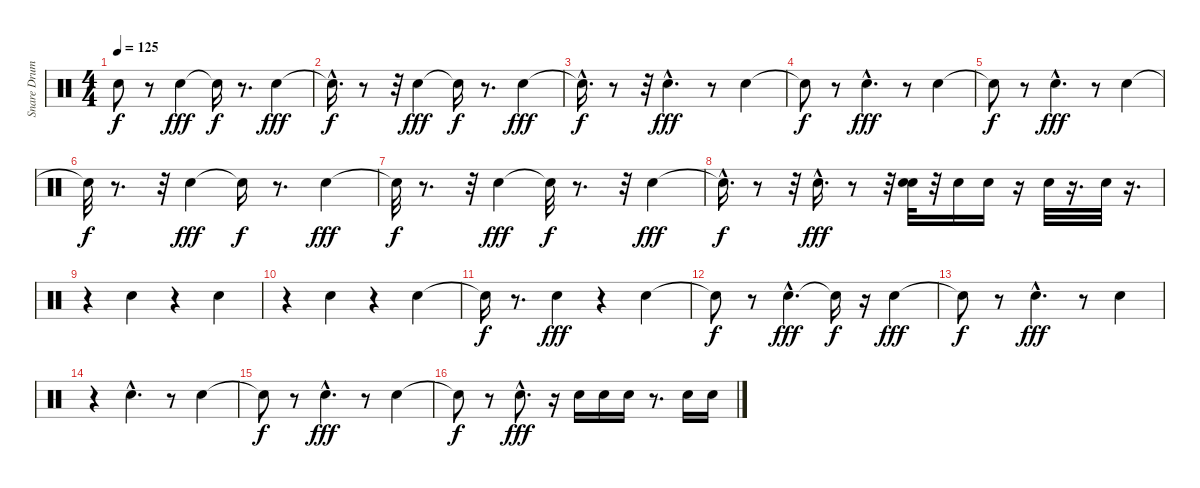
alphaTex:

\track ("Snare Drum      " "Snare Drum") {instrument percussion}
\staff {score}
\articulation defaults
\ts (4 4)
\tempo 125
\clef neutral
\ks c "Snare (hit)"{t}.8{dy f}
r.8 "Snare (hit) 2".4{dy fff} "Snare (hit)"{t}.16{dy f} r.8{d} "Snare (hit) 2".4{dy fff} |
"Snare (hit)"{hac t}.16{d dy f} r.8 r.32 "Snare (hit) 2".4{dy fff} "Snare (hit)"{t}.16{dy f} r.8{d} "Snare (hit) 2".4{dy fff} |
"Snare (hit)"{hac t}.16{d dy f} r.8 r.32 "Snare (hit) 2"{hac}.4{d dy fff} r.8 "Snare (hit) 2".4 |
"Snare (hit)"{t}.8{dy f} r.8 "Snare (hit) 2"{hac}.4{d dy fff} r.8 "Snare (hit) 2".4 |
"Snare (hit)"{t}.8{dy f} r.8 "Snare (hit) 2"{hac}.4{d dy fff} r.8 "Snare (hit) 2".4 |
"Snare (hit)"{t}.32{dy f} r.8{d} r.32 "Snare (hit) 2".4{dy fff} "Snare (hit)"{t}.16{dy f} r.8{d} "Snare (hit) 2".4{dy fff} |
"Snare (hit)"{t}.32{dy f} r.8{d} r.32 "Snare (hit) 2".4{dy fff} "Snare (hit)"{t}.32{dy f} r.8{d} r.32 "Snare (hit) 2".4{dy fff} |
"Snare (hit)"{hac t}.16{d dy f} r.8 r.32 "Snare (hit) 2"{hac}.16{d dy fff} r.8 r.32 ("Snare (hit) 2" "Snare (hit) 2").32 r.32 "Snare (hit) 2".16 "Snare (hit) 2".16 r.16 "Snare (hit) 2".32 r.16{d} "Snare (hit) 2".32 r.16{d} |
r.4 "Snare (hit) 2".4 r.4 "Snare (hit) 2".4 |
r.4 "Snare (hit) 2".4 r.4 "Snare (hit) 2".4 |
"Snare (hit)"{t}.16{dy f} r.8{d} "Snare (hit) 2".4{dy fff} r.4 "Snare (hit) 2".4 |
"Snare (hit)"{t}.8{dy f} r.8 "Snare (hit) 2"{hac}.4{d dy fff} "Snare (hit)"{t}.16{dy f} r.16 "Snare (hit) 2".4{dy fff} |
"Snare (hit)"{t}.8{dy f} r.8 "Snare (hit) 2"{hac}.4{d dy fff} r.8 "Snare (hit) 2".4 |
r.4 "Snare (hit) 2"{hac}.4{d} r.8 "Snare (hit) 2".4 |
"Snare (hit)"{t}.8{dy f} r.8 "Snare (hit) 2"{hac}.4{d dy fff} r.8 "Snare (hit) 2".4 |
"Snare (hit)"{t}.8{dy f} r.8 "Snare (hit) 2"{hac}.8{d dy fff} r.16 "Snare (hit) 2".16 "Snare (hit) 2".16 "Snare (hit) 2".16 r.8{d} "Snare (hit) 2".16 "Snare (hit) 2".16
